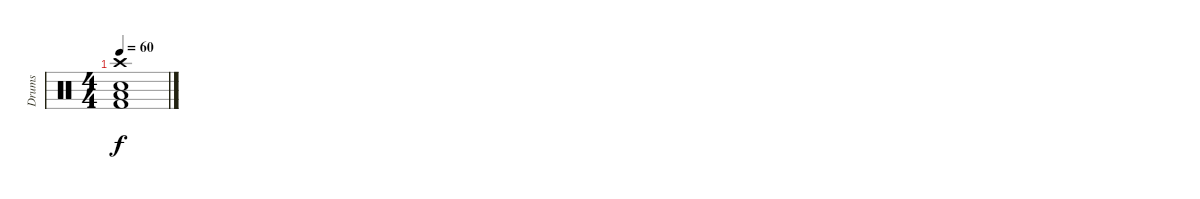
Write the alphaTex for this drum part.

\track ("Drums" "Drums") {instrument percussion}
\staff {score}
\articulation defaults
\ts (4 4)
\tempo 60
\clef neutral
\ks c
("Crash high (hit)" "Low Floor Tom (hit)" "Snare (hit) 2" "Kick (hit) 2").1{dy f}
